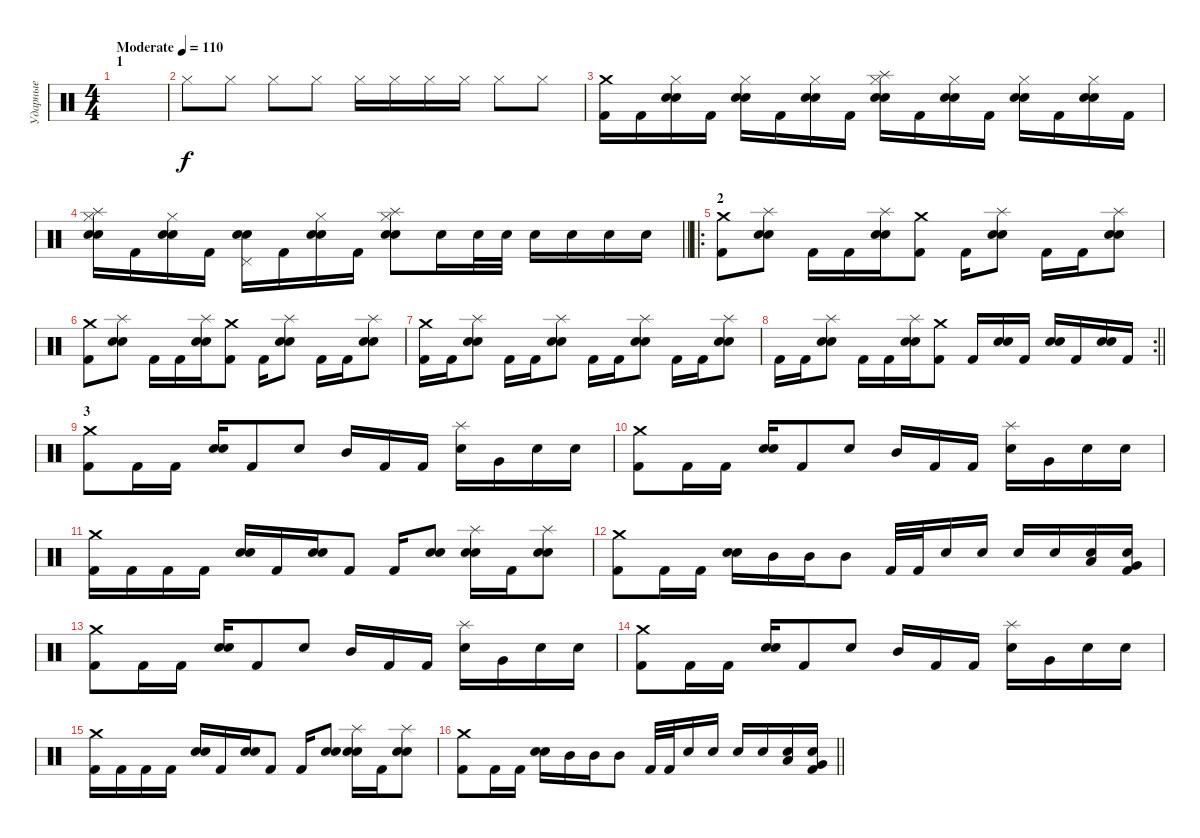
\track ("Ударные" "Ударные") {instrument percussion}
\staff {score}
\articulation defaults
\ts (4 4)
\section ("" "1")
\tempo (110 "Moderate")
\clef neutral
\ks c
|
"Hi-Hat (closed)".8 "Hi-Hat (closed)".8 "Hi-Hat (closed)".8 "Hi-Hat (closed)".8 "Hi-Hat (closed)".16 "Hi-Hat (closed)".16 "Hi-Hat (closed)".16 "Hi-Hat (closed)".16 "Hi-Hat (closed)".8 "Hi-Hat (closed)".8 |
("Crash medium (hit)" "Kick (hit) 2").16 "Kick (hit) 2".16 ("Hi-Hat (closed)" "Electric Snare (hit)" "Snare (hit) 2").16 "Kick (hit) 2".16 ("Hi-Hat (closed)" "Electric Snare (hit)" "Snare (hit) 2").16 "Kick (hit) 2".16 ("Hi-Hat (closed)" "Electric Snare (hit)" "Snare (hit) 2").16 "Kick (hit) 2".16 ("Splash (hit)" "Hi-Hat (closed)" "Electric Snare (hit)" "Snare (hit) 2").16 "Kick (hit) 2".16 ("Hi-Hat (closed)" "Electric Snare (hit)" "Snare (hit) 2").16 "Kick (hit) 2".16 ("Hi-Hat (closed)" "Electric Snare (hit)" "Snare (hit) 2").16 "Kick (hit) 2".16 ("Hi-Hat (closed)" "Electric Snare (hit)" "Snare (hit) 2").16 "Kick (hit) 2".16 |
\barLineRight lightlight
("Splash (hit)" "Hi-Hat (closed)" "Electric Snare (hit)" "Snare (hit) 2").16 "Kick (hit) 2".16 ("Hi-Hat (closed)" "Electric Snare (hit)" "Snare (hit) 2").16 "Kick (hit) 2".16 ("Pedal Hi-Hat (hit)" "Electric Snare (hit)" "Snare (hit) 2").16 "Kick (hit) 2".16 ("Hi-Hat (closed)" "Electric Snare (hit)" "Snare (hit) 2").16 "Kick (hit) 2".16 ("Splash (hit)" "Hi-Hat (closed)" "Electric Snare (hit)" "Snare (hit) 2").8 "Electric Snare (hit)".16 "Electric Snare (hit)".32 "Electric Snare (hit)".32 "Electric Snare (hit)".16 "Electric Snare (hit)".16 "Electric Snare (hit)".16 "Electric Snare (hit)".16 |
\ro
\section ("" "2")
("Crash medium (hit)" "Kick (hit) 2").8 ("Splash (hit)" "Electric Snare (hit)" "Snare (hit) 2").8 "Kick (hit) 2".16 "Kick (hit) 2".16 ("Splash (hit)" "Electric Snare (hit)" "Snare (hit) 2").16 ("Crash medium (hit)" "Kick (hit) 2").8 "Kick (hit) 2".16 ("Splash (hit)" "Electric Snare (hit)" "Snare (hit) 2").8 "Kick (hit) 2".16 "Kick (hit) 2".16 ("Splash (hit)" "Electric Snare (hit)" "Snare (hit) 2").8 |
("Crash medium (hit)" "Kick (hit) 2").8 ("Splash (hit)" "Electric Snare (hit)" "Snare (hit) 2").8 "Kick (hit) 2".16 "Kick (hit) 2".16 ("Splash (hit)" "Electric Snare (hit)" "Snare (hit) 2").16 ("Crash medium (hit)" "Kick (hit) 2").8 "Kick (hit) 2".16 ("Splash (hit)" "Electric Snare (hit)" "Snare (hit) 2").8 "Kick (hit) 2".16 "Kick (hit) 2".16 ("Splash (hit)" "Electric Snare (hit)" "Snare (hit) 2").8 |
("Crash medium (hit)" "Kick (hit) 2").16 "Kick (hit) 2".16 ("Splash (hit)" "Electric Snare (hit)" "Snare (hit) 2").8 "Kick (hit) 2".16 "Kick (hit) 2".16 ("Splash (hit)" "Electric Snare (hit)" "Snare (hit) 2").8 "Kick (hit) 2".16 "Kick (hit) 2".16 ("Splash (hit)" "Electric Snare (hit)" "Snare (hit) 2").8 "Kick (hit) 2".16 "Kick (hit) 2".16 ("Splash (hit)" "Electric Snare (hit)" "Snare (hit) 2").8 |
\rc 2
\barLineRight lightlight "Kick (hit) 2".16 "Kick (hit) 2".16
("Splash (hit)" "Electric Snare (hit)" "Snare (hit) 2").8 "Kick (hit) 2".16 "Kick (hit) 2".16 ("Splash (hit)" "Electric Snare (hit)" "Snare (hit) 2").16 ("Crash medium (hit)" "Kick (hit) 2").8 "Kick (hit) 2".16 ("Electric Snare (hit)" "Snare (hit) 2").16 "Kick (hit) 2".16 ("Electric Snare (hit)" "Snare (hit) 2").16 "Kick (hit) 2".16 ("Electric Snare (hit)" "Snare (hit) 2").16 "Kick (hit) 2".16 |
\section ("" "3")
("Crash medium (hit)" "Kick (hit) 2").8 "Kick (hit) 2".16 "Kick (hit) 2".16 ("Electric Snare (hit)" "Snare (hit) 2").16 "Kick (hit) 2".8 "Electric Snare (hit)".8 "Mid Tom (hit)".16 "Kick (hit) 2".16 "Kick (hit) 2".16 ("Splash (hit)" "Electric Snare (hit)").16 "Very Low Tom (hit)".16 "Electric Snare (hit)".16 "Electric Snare (hit)".16 |
("Crash medium (hit)" "Kick (hit) 2").8 "Kick (hit) 2".16 "Kick (hit) 2".16 ("Electric Snare (hit)" "Snare (hit) 2").16 "Kick (hit) 2".8 "Electric Snare (hit)".8 "Mid Tom (hit)".16 "Kick (hit) 2".16 "Kick (hit) 2".16 ("Splash (hit)" "Electric Snare (hit)").16 "Very Low Tom (hit)".16 "Electric Snare (hit)".16 "Electric Snare (hit)".16 |
("Crash medium (hit)" "Kick (hit) 2").16 "Kick (hit) 2".16 "Kick (hit) 2".16 "Kick (hit) 2".16 ("Electric Snare (hit)" "Snare (hit) 2").16 "Kick (hit) 2".16 ("Electric Snare (hit)" "Snare (hit) 2").16 "Kick (hit) 2".8 "Kick (hit) 2".16 ("Electric Snare (hit)" "Snare (hit) 2").8 ("Splash (hit)" "Electric Snare (hit)" "Snare (hit) 2").16 "Kick (hit) 2".16 ("Splash (hit)" "Electric Snare (hit)" "Snare (hit) 2").8 |
("Crash medium (hit)" "Kick (hit) 2").8 "Kick (hit) 2".16 "Kick (hit) 2".16 ("Electric Snare (hit)" "Snare (hit) 2").16 "Mid Tom (hit)".16 "Mid Tom (hit)".16 "Mid Tom (hit)".8 "Kick (hit) 2".32 "Kick (hit) 2".32 "Electric Snare (hit)".16 "Electric Snare (hit)".16 "Electric Snare (hit)".16 "Electric Snare (hit)".16 ("Electric Snare (hit)" "Low Tom (hit)").16 ("Electric Snare (hit)" "Very Low Tom (hit)" "Kick (hit) 2").16 |
("Crash medium (hit)" "Kick (hit) 2").8 "Kick (hit) 2".16 "Kick (hit) 2".16 ("Electric Snare (hit)" "Snare (hit) 2").16 "Kick (hit) 2".8 "Electric Snare (hit)".8 "Mid Tom (hit)".16 "Kick (hit) 2".16 "Kick (hit) 2".16 ("Splash (hit)" "Electric Snare (hit)").16 "Very Low Tom (hit)".16 "Electric Snare (hit)".16 "Electric Snare (hit)".16 |
("Crash medium (hit)" "Kick (hit) 2").8 "Kick (hit) 2".16 "Kick (hit) 2".16 ("Electric Snare (hit)" "Snare (hit) 2").16 "Kick (hit) 2".8 "Electric Snare (hit)".8 "Mid Tom (hit)".16 "Kick (hit) 2".16 "Kick (hit) 2".16 ("Splash (hit)" "Electric Snare (hit)").16 "Very Low Tom (hit)".16 "Electric Snare (hit)".16 "Electric Snare (hit)".16 |
("Crash medium (hit)" "Kick (hit) 2").16 "Kick (hit) 2".16 "Kick (hit) 2".16 "Kick (hit) 2".16 ("Electric Snare (hit)" "Snare (hit) 2").16 "Kick (hit) 2".16 ("Electric Snare (hit)" "Snare (hit) 2").16 "Kick (hit) 2".8 "Kick (hit) 2".16 ("Electric Snare (hit)" "Snare (hit) 2").8 ("Splash (hit)" "Electric Snare (hit)" "Snare (hit) 2").16 "Kick (hit) 2".16 ("Splash (hit)" "Electric Snare (hit)" "Snare (hit) 2").8 |
\barLineRight lightlight
("Crash medium (hit)" "Kick (hit) 2").8 "Kick (hit) 2".16 "Kick (hit) 2".16 ("Electric Snare (hit)" "Snare (hit) 2").16 "Mid Tom (hit)".16 "Mid Tom (hit)".16 "Mid Tom (hit)".8 "Kick (hit) 2".32 "Kick (hit) 2".32 "Electric Snare (hit)".16 "Electric Snare (hit)".16 "Electric Snare (hit)".16 "Electric Snare (hit)".16 ("Electric Snare (hit)" "Low Tom (hit)").16 ("Electric Snare (hit)" "Very Low Tom (hit)" "Kick (hit) 2").16
